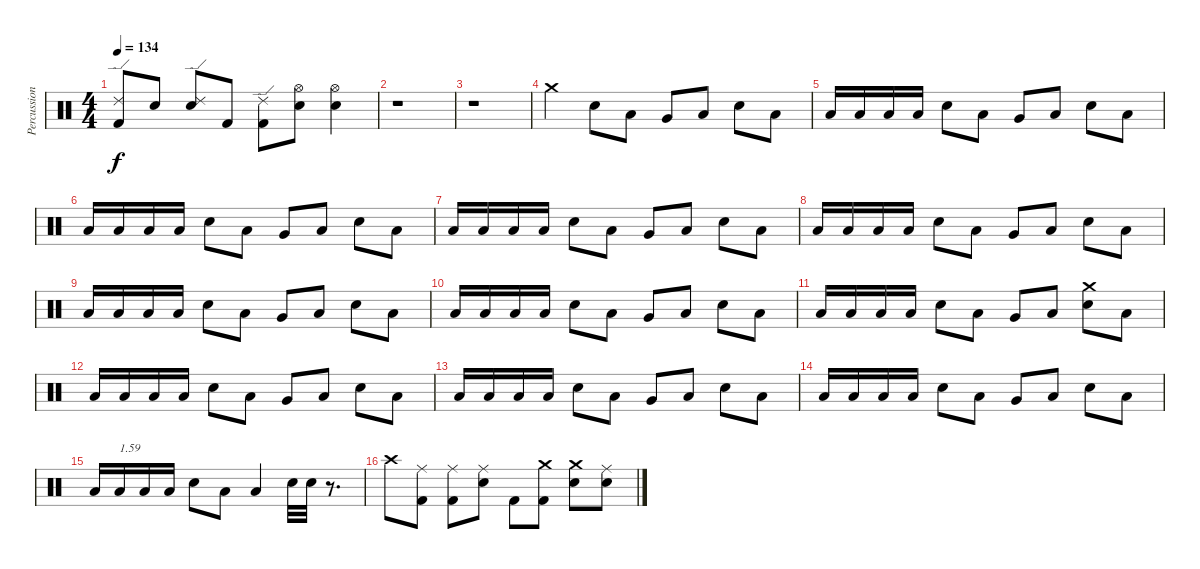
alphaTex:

\track ("Percussions" "Percussion") {instrument percussion}
\staff {score}
\articulation defaults
\ts (4 4)
\tempo 134
\clef neutral
\ks c
("Kick (hit) 2" "Ride (edge) 2").8{dy f} "Electric Snare (hit)".8 ("Electric Snare (hit)" "Ride (edge) 2").8 "Kick (hit) 2".8 ("Kick (hit) 2" "Ride (edge) 2").8 ("Electric Snare (hit)" "Hi-Hat (open)").8 ("Electric Snare (hit)" "Hi-Hat (open)").4 |
r.1 |
r.1 |
"Crash medium (hit)".4 "Electric Snare (hit)".8 "Low Floor Tom (hit)".8 "Very Low Tom (hit)".8 "Low Floor Tom (hit)".8 "Electric Snare (hit)".8 "Low Floor Tom (hit)".8 |
"Low Floor Tom (hit)".16 "Low Floor Tom (hit)".16 "Low Floor Tom (hit)".16 "Low Floor Tom (hit)".16 "Electric Snare (hit)".8 "Low Floor Tom (hit)".8 "Very Low Tom (hit)".8 "Low Floor Tom (hit)".8 "Electric Snare (hit)".8 "Low Floor Tom (hit)".8 |
"Low Floor Tom (hit)".16 "Low Floor Tom (hit)".16 "Low Floor Tom (hit)".16 "Low Floor Tom (hit)".16 "Electric Snare (hit)".8 "Low Floor Tom (hit)".8 "Very Low Tom (hit)".8 "Low Floor Tom (hit)".8 "Electric Snare (hit)".8 "Low Floor Tom (hit)".8 |
"Low Floor Tom (hit)".16 "Low Floor Tom (hit)".16 "Low Floor Tom (hit)".16 "Low Floor Tom (hit)".16 "Electric Snare (hit)".8 "Low Floor Tom (hit)".8 "Very Low Tom (hit)".8 "Low Floor Tom (hit)".8 "Electric Snare (hit)".8 "Low Floor Tom (hit)".8 |
"Low Floor Tom (hit)".16 "Low Floor Tom (hit)".16 "Low Floor Tom (hit)".16 "Low Floor Tom (hit)".16 "Electric Snare (hit)".8 "Low Floor Tom (hit)".8 "Very Low Tom (hit)".8 "Low Floor Tom (hit)".8 "Electric Snare (hit)".8 "Low Floor Tom (hit)".8 |
"Low Floor Tom (hit)".16 "Low Floor Tom (hit)".16 "Low Floor Tom (hit)".16 "Low Floor Tom (hit)".16 "Electric Snare (hit)".8 "Low Floor Tom (hit)".8 "Very Low Tom (hit)".8 "Low Floor Tom (hit)".8 "Electric Snare (hit)".8 "Low Floor Tom (hit)".8 |
"Low Floor Tom (hit)".16 "Low Floor Tom (hit)".16 "Low Floor Tom (hit)".16 "Low Floor Tom (hit)".16 "Electric Snare (hit)".8 "Low Floor Tom (hit)".8 "Very Low Tom (hit)".8 "Low Floor Tom (hit)".8 "Electric Snare (hit)".8 "Low Floor Tom (hit)".8 |
"Low Floor Tom (hit)".16 "Low Floor Tom (hit)".16 "Low Floor Tom (hit)".16 "Low Floor Tom (hit)".16 "Electric Snare (hit)".8 "Low Floor Tom (hit)".8 "Very Low Tom (hit)".8 "Low Floor Tom (hit)".8 ("Electric Snare (hit)" "Crash medium (hit)").8 "Low Floor Tom (hit)".8 |
"Low Floor Tom (hit)".16 "Low Floor Tom (hit)".16 "Low Floor Tom (hit)".16 "Low Floor Tom (hit)".16 "Electric Snare (hit)".8 "Low Floor Tom (hit)".8 "Very Low Tom (hit)".8 "Low Floor Tom (hit)".8 "Electric Snare (hit)".8 "Low Floor Tom (hit)".8 |
"Low Floor Tom (hit)".16 "Low Floor Tom (hit)".16 "Low Floor Tom (hit)".16 "Low Floor Tom (hit)".16 "Electric Snare (hit)".8 "Low Floor Tom (hit)".8 "Very Low Tom (hit)".8 "Low Floor Tom (hit)".8 "Electric Snare (hit)".8 "Low Floor Tom (hit)".8 |
"Low Floor Tom (hit)".16 "Low Floor Tom (hit)".16 "Low Floor Tom (hit)".16 "Low Floor Tom (hit)".16 "Electric Snare (hit)".8 "Low Floor Tom (hit)".8 "Very Low Tom (hit)".8 "Low Floor Tom (hit)".8 "Electric Snare (hit)".8 "Low Floor Tom (hit)".8 |
"Low Floor Tom (hit)".16 "Low Floor Tom (hit)".16{txt "1.59"} "Low Floor Tom (hit)".16 "Low Floor Tom (hit)".16 "Electric Snare (hit)".8 "Low Floor Tom (hit)".8 "Low Floor Tom (hit)".4 "Electric Snare (hit)".32 "Electric Snare (hit)".32 r.8{d} |
"Crash high (hit)".8 ("Kick (hit) 2" "Ride (middle)").8 ("Kick (hit) 2" "Ride (middle)").8 ("Electric Snare (hit)" "Ride (middle)").8 "Kick (hit) 2".8 ("Kick (hit) 2" "Crash medium (hit)").8 ("Electric Snare (hit)" "Crash medium (hit)").8 ("Electric Snare (hit)" "Ride (middle)").8
